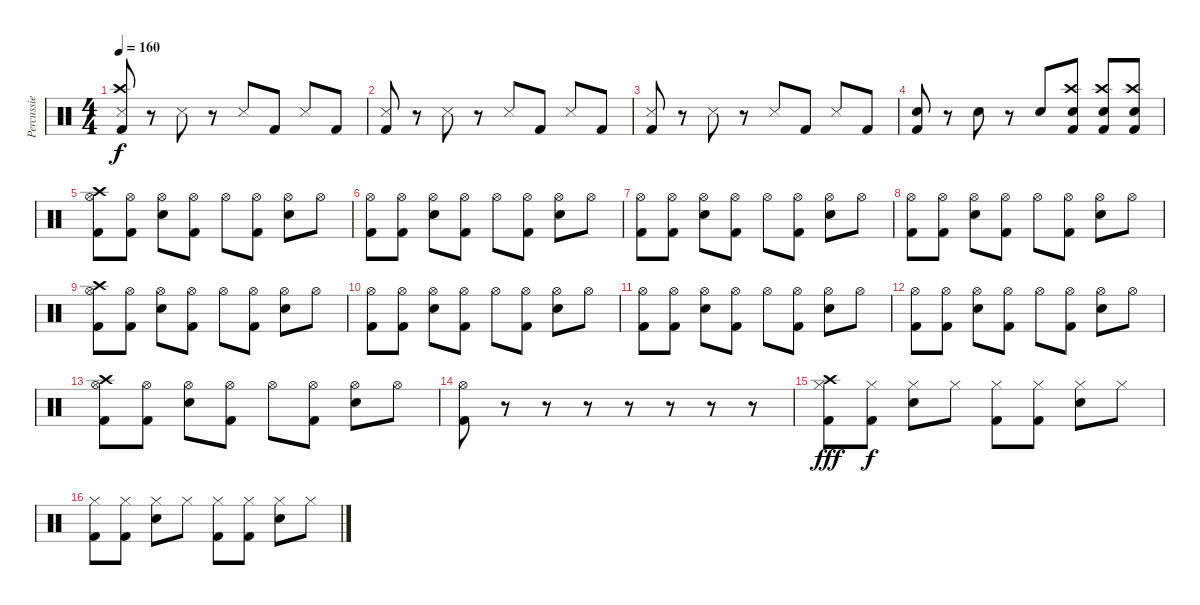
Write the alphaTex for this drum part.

\track ("Percussie" "Percussie") {instrument percussion}
\staff {score}
\articulation defaults
\ts (4 4)
\tempo 160
\clef neutral
\ks c
("Kick (hit) 2" "Crash high (hit)" "Metronome (hit)").8{dy f} r.8 "Metronome (hit)".8 r.8 "Metronome (hit)".8 "Kick (hit) 2".8 "Metronome (hit)".8 "Kick (hit) 2".8 |
("Kick (hit) 2" "Metronome (hit)").8 r.8 "Metronome (hit)".8 r.8 "Metronome (hit)".8 "Kick (hit) 2".8 "Metronome (hit)".8 "Kick (hit) 2".8 |
("Kick (hit) 2" "Metronome (hit)").8 r.8 "Metronome (hit)".8 r.8 "Metronome (hit)".8 "Kick (hit) 2".8 "Metronome (hit)".8 "Kick (hit) 2".8 |
("Kick (hit) 2" "Electric Snare (hit)").8 r.8 "Electric Snare (hit)".8 r.8 "Electric Snare (hit)".8 ("Kick (hit) 2" "Electric Snare (hit)" "Crash high (hit)").8 ("Kick (hit) 2" "Electric Snare (hit)" "Crash high (hit)").8 ("Kick (hit) 2" "Electric Snare (hit)" "Crash high (hit)").8 |
("Kick (hit) 2" "Crash high (hit)" "Hi-Hat (open)").8 ("Kick (hit) 2" "Hi-Hat (open)").8 ("Electric Snare (hit)" "Hi-Hat (open)").8 ("Kick (hit) 2" "Hi-Hat (open)").8 "Hi-Hat (open)".8 ("Kick (hit) 2" "Hi-Hat (open)").8 ("Electric Snare (hit)" "Hi-Hat (open)").8 "Hi-Hat (open)".8 |
("Kick (hit) 2" "Hi-Hat (open)").8 ("Kick (hit) 2" "Hi-Hat (open)").8 ("Electric Snare (hit)" "Hi-Hat (open)").8 ("Kick (hit) 2" "Hi-Hat (open)").8 "Hi-Hat (open)".8 ("Kick (hit) 2" "Hi-Hat (open)").8 ("Electric Snare (hit)" "Hi-Hat (open)").8 "Hi-Hat (open)".8 |
("Kick (hit) 2" "Hi-Hat (open)").8 ("Kick (hit) 2" "Hi-Hat (open)").8 ("Electric Snare (hit)" "Hi-Hat (open)").8 ("Kick (hit) 2" "Hi-Hat (open)").8 "Hi-Hat (open)".8 ("Kick (hit) 2" "Hi-Hat (open)").8 ("Electric Snare (hit)" "Hi-Hat (open)").8 "Hi-Hat (open)".8 |
("Kick (hit) 2" "Hi-Hat (open)").8 ("Kick (hit) 2" "Hi-Hat (open)").8 ("Electric Snare (hit)" "Hi-Hat (open)").8 ("Kick (hit) 2" "Hi-Hat (open)").8 "Hi-Hat (open)".8 ("Kick (hit) 2" "Hi-Hat (open)").8 ("Electric Snare (hit)" "Hi-Hat (open)").8 "Hi-Hat (open)".8 |
("Kick (hit) 2" "Crash high (hit)" "Hi-Hat (open)").8 ("Kick (hit) 2" "Hi-Hat (open)").8 ("Electric Snare (hit)" "Hi-Hat (open)").8 ("Kick (hit) 2" "Hi-Hat (open)").8 "Hi-Hat (open)".8 ("Kick (hit) 2" "Hi-Hat (open)").8 ("Electric Snare (hit)" "Hi-Hat (open)").8 "Hi-Hat (open)".8 |
("Kick (hit) 2" "Hi-Hat (open)").8 ("Kick (hit) 2" "Hi-Hat (open)").8 ("Electric Snare (hit)" "Hi-Hat (open)").8 ("Kick (hit) 2" "Hi-Hat (open)").8 "Hi-Hat (open)".8 ("Kick (hit) 2" "Hi-Hat (open)").8 ("Electric Snare (hit)" "Hi-Hat (open)").8 "Hi-Hat (open)".8 |
("Kick (hit) 2" "Hi-Hat (open)").8 ("Kick (hit) 2" "Hi-Hat (open)").8 ("Electric Snare (hit)" "Hi-Hat (open)").8 ("Kick (hit) 2" "Hi-Hat (open)").8 "Hi-Hat (open)".8 ("Kick (hit) 2" "Hi-Hat (open)").8 ("Electric Snare (hit)" "Hi-Hat (open)").8 "Hi-Hat (open)".8 |
("Kick (hit) 2" "Hi-Hat (open)").8 ("Kick (hit) 2" "Hi-Hat (open)").8 ("Electric Snare (hit)" "Hi-Hat (open)").8 ("Kick (hit) 2" "Hi-Hat (open)").8 "Hi-Hat (open)".8 ("Kick (hit) 2" "Hi-Hat (open)").8 ("Electric Snare (hit)" "Hi-Hat (open)").8 "Hi-Hat (open)".8 |
("Kick (hit) 2" "Crash high (hit)" "Hi-Hat (open)").8 ("Kick (hit) 2" "Hi-Hat (open)").8 ("Electric Snare (hit)" "Hi-Hat (open)").8 ("Kick (hit) 2" "Hi-Hat (open)").8 "Hi-Hat (open)".8 ("Kick (hit) 2" "Hi-Hat (open)").8 ("Electric Snare (hit)" "Hi-Hat (open)").8 "Hi-Hat (open)".8 |
("Kick (hit) 2" "Hi-Hat (open)").8 r.8 r.8 r.8 r.8 r.8 r.8 r.8 |
("Kick (hit) 2" "Crash high (hit)" "Hi-Hat (closed)").8{dy fff} ("Kick (hit) 2" "Hi-Hat (closed)").8{dy f} ("Electric Snare (hit)" "Hi-Hat (closed)").8 "Hi-Hat (closed)".8 ("Kick (hit) 2" "Hi-Hat (closed)").8 ("Kick (hit) 2" "Hi-Hat (closed)").8 ("Electric Snare (hit)" "Hi-Hat (closed)").8 "Hi-Hat (closed)".8 |
("Kick (hit) 2" "Hi-Hat (closed)").8 ("Kick (hit) 2" "Hi-Hat (closed)").8 ("Electric Snare (hit)" "Hi-Hat (closed)").8 "Hi-Hat (closed)".8 ("Kick (hit) 2" "Hi-Hat (closed)").8 ("Kick (hit) 2" "Hi-Hat (closed)").8 ("Electric Snare (hit)" "Hi-Hat (closed)").8 "Hi-Hat (closed)".8
